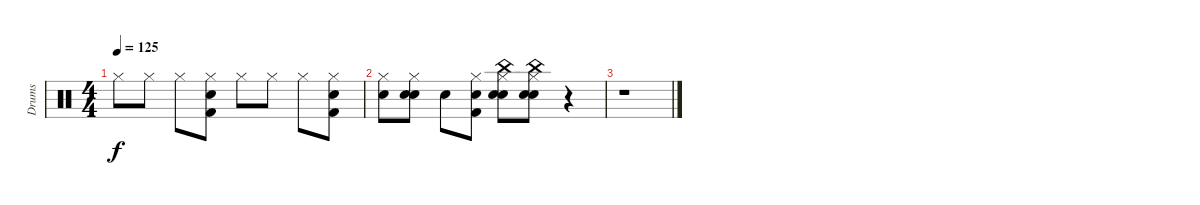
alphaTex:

\track ("Drums" "Drums") {instrument percussion}
\staff {score}
\articulation defaults
\ts (4 4)
\tempo 125
\clef neutral
\ks c "Hi-Hat (closed)".8{dy f} "Hi-Hat (closed)".8 "Hi-Hat (closed)".8
("Hi-Hat (closed)" "Snare (hit) 2" "Kick (hit) 2").8 "Hi-Hat (closed)".8 "Hi-Hat (closed)".8 "Hi-Hat (closed)".8 ("Hi-Hat (closed)" "Snare (hit) 2" "Kick (hit) 2").8 |
("Hi-Hat (closed)" "Snare (hit) 2").8 ("Hi-Hat (closed)" "Electric Snare (hit)" "Snare (hit) 2").8 "Electric Snare (hit)".8 ("Hi-Hat (closed)" "Snare (hit) 2" "Kick (hit) 2").8 ("Hi-Hat (closed)" "Snare (hit) 2" "Electric Snare (hit)" "China (hit)").8 ("Hi-Hat (closed)" "Snare (hit) 2" "Electric Snare (hit)" "China (hit)").8 r.4 |
r.1
